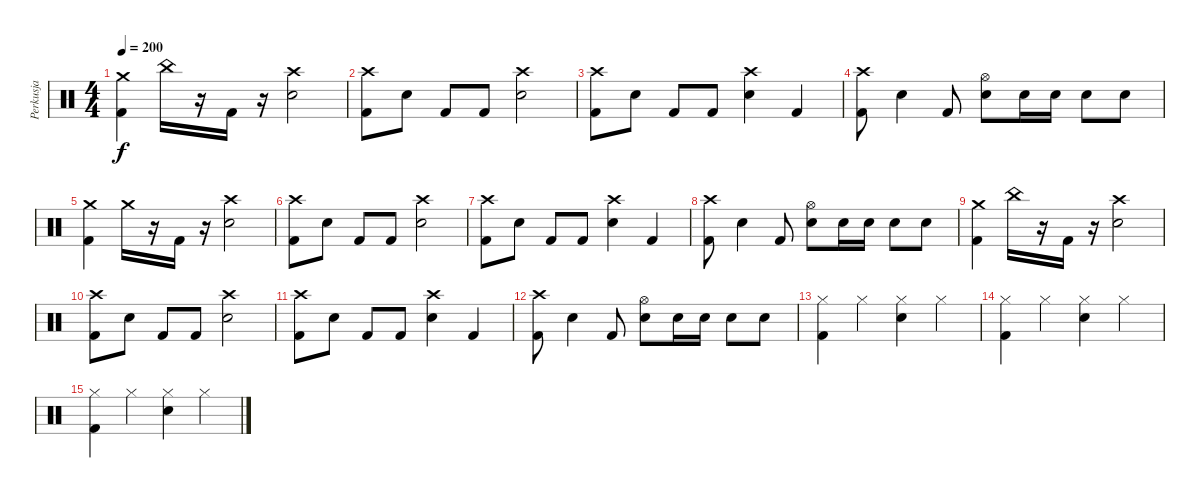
\track ("Perkusja" "Perkusja") {instrument percussion}
\staff {score}
\articulation defaults
\ts (4 4)
\tempo 200
\clef neutral
\ks c
("Crash medium (hit)" "Kick (hit) 2").4{dy f} "China (hit)".16 r.16 "Kick (hit) 2".16 r.16 ("Crash high (hit)" "Snare (hit) 2").2 |
("Crash high (hit)" "Kick (hit) 2").8 "Snare (hit) 2".8 "Kick (hit) 2".8 "Kick (hit) 2".8 ("Crash high (hit)" "Snare (hit) 2").2 |
("Crash high (hit)" "Kick (hit) 2").8 "Snare (hit) 2".8 "Kick (hit) 2".8 "Kick (hit) 2".8 ("Crash high (hit)" "Snare (hit) 2").4 "Kick (hit) 2".4 |
("Crash high (hit)" "Kick (hit) 2").8 "Snare (hit) 2".4 "Kick (hit) 2".8 ("Hi-Hat (open)" "Snare (hit) 2").8 "Electric Snare (hit)".16 "Electric Snare (hit)".16 "Electric Snare (hit)".8 "Electric Snare (hit)".8 |
("Crash medium (hit)" "Kick (hit) 2").4 "Crash medium (hit)".16 r.16 "Kick (hit) 2".16 r.16 ("Crash high (hit)" "Snare (hit) 2").2 |
("Crash high (hit)" "Kick (hit) 2").8 "Snare (hit) 2".8 "Kick (hit) 2".8 "Kick (hit) 2".8 ("Crash high (hit)" "Snare (hit) 2").2 |
("Crash high (hit)" "Kick (hit) 2").8 "Snare (hit) 2".8 "Kick (hit) 2".8 "Kick (hit) 2".8 ("Crash high (hit)" "Snare (hit) 2").4 "Kick (hit) 2".4 |
("Crash high (hit)" "Kick (hit) 2").8 "Snare (hit) 2".4 "Kick (hit) 2".8 ("Hi-Hat (open)" "Snare (hit) 2").8 "Electric Snare (hit)".16 "Electric Snare (hit)".16 "Electric Snare (hit)".8 "Electric Snare (hit)".8 |
("Crash medium (hit)" "Kick (hit) 2").4 "China (hit)".16 r.16 "Kick (hit) 2".16 r.16 ("Crash high (hit)" "Snare (hit) 2").2 |
("Crash high (hit)" "Kick (hit) 2").8 "Snare (hit) 2".8 "Kick (hit) 2".8 "Kick (hit) 2".8 ("Crash high (hit)" "Snare (hit) 2").2 |
("Crash high (hit)" "Kick (hit) 2").8 "Snare (hit) 2".8 "Kick (hit) 2".8 "Kick (hit) 2".8 ("Crash high (hit)" "Snare (hit) 2").4 "Kick (hit) 2".4 |
("Crash high (hit)" "Kick (hit) 2").8 "Snare (hit) 2".4 "Kick (hit) 2".8 ("Hi-Hat (open)" "Snare (hit) 2").8 "Electric Snare (hit)".16 "Electric Snare (hit)".16 "Electric Snare (hit)".8 "Electric Snare (hit)".8 |
("Hi-Hat (closed)" "Kick (hit) 2").4 "Hi-Hat (closed)".4 ("Hi-Hat (closed)" "Snare (hit) 2").4 "Hi-Hat (closed)".4 |
("Hi-Hat (closed)" "Kick (hit) 2").4 "Hi-Hat (closed)".4 ("Hi-Hat (closed)" "Snare (hit) 2").4 "Hi-Hat (closed)".4 |
("Hi-Hat (closed)" "Kick (hit) 2").4 "Hi-Hat (closed)".4 ("Hi-Hat (closed)" "Snare (hit) 2").4 "Hi-Hat (closed)".4
